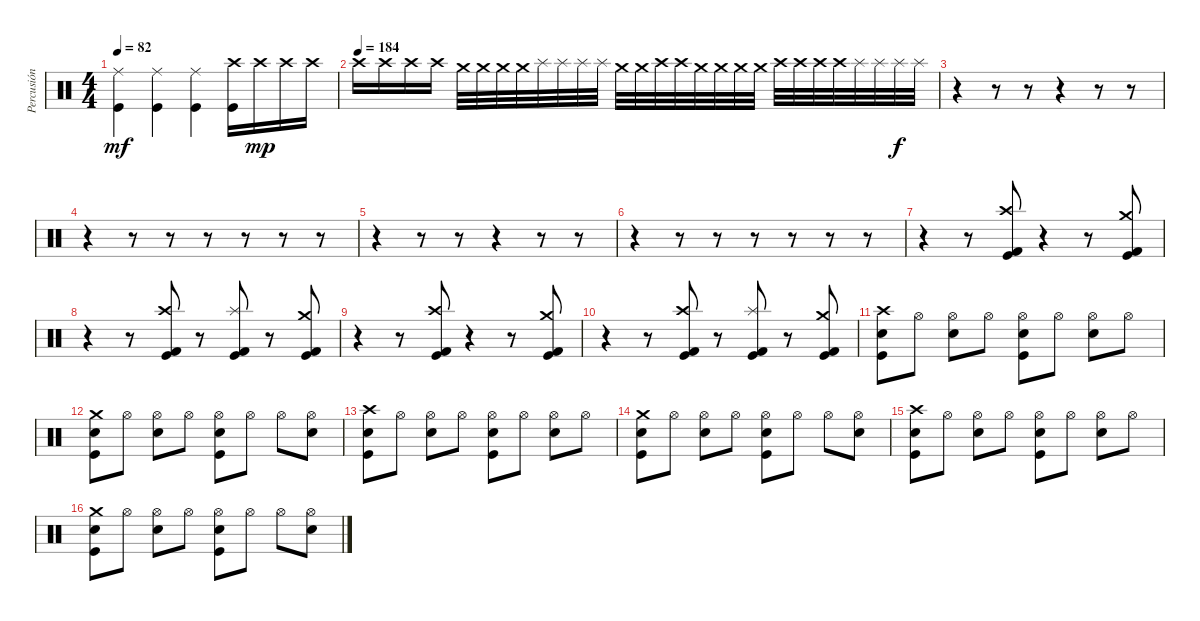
\track ("Percusión" "Percusión") {instrument percussion}
\staff {score}
\articulation defaults
\ts (4 4)
\tempo 82
\clef neutral
\ks c
("Ride (middle)" "Kick (hit)").4{dy mf} ("Ride (middle)" "Kick (hit)").4 ("Ride (middle)" "Kick (hit)").4 ("Crash high (hit)" "Kick (hit)").16 "Crash high (hit)".16{dy mp} "Crash high (hit)".16 "Crash high (hit)".16 |
\tempo (184)
"Crash high (hit)".16 "Crash high (hit)".16 "Crash high (hit)".16 "Crash high (hit)".16 "Crash medium (hit)".32 "Crash medium (hit)".32 "Crash medium (hit)".32 "Crash medium (hit)".32 "Splash (hit)".32 "Splash (hit)".32 "Splash (hit)".32 "Splash (hit)".32 "Crash medium (hit)".32 "Crash medium (hit)".32 "Crash high (hit)".32 "Crash high (hit)".32 "Crash medium (hit)".32 "Crash medium (hit)".32 "Crash medium (hit)".32 "Crash medium (hit)".32 "Crash high (hit)".32 "Crash high (hit)".32 "Crash high (hit)".32 "Crash high (hit)".32 "Splash (hit)".32 "Splash (hit)".32 "Splash (hit)".32{dy f} "Splash (hit)".32 |
r.4 r.8 r.8 r.4 r.8 r.8 |
r.4 r.8 r.8 r.8 r.8 r.8 r.8 |
r.4 r.8 r.8 r.4 r.8 r.8 |
r.4 r.8 r.8 r.8 r.8 r.8 r.8 |
r.4 r.8 ("Crash high (hit)" "Kick (hit) 2" "Kick (hit)").8 r.4 r.8 ("Crash medium (hit)" "Kick (hit) 2" "Kick (hit)").8 |
r.4 r.8 ("Crash high (hit)" "Kick (hit) 2" "Kick (hit)").8 r.8 ("Splash (hit)" "Kick (hit) 2" "Kick (hit)").8 r.8 ("Crash medium (hit)" "Kick (hit) 2" "Kick (hit)").8 |
r.4 r.8 ("Crash high (hit)" "Kick (hit) 2" "Kick (hit)").8 r.4 r.8 ("Crash medium (hit)" "Kick (hit) 2" "Kick (hit)").8 |
r.4 r.8 ("Crash high (hit)" "Kick (hit) 2" "Kick (hit)").8 r.8 ("Splash (hit)" "Kick (hit) 2" "Kick (hit)").8 r.8 ("Crash medium (hit)" "Kick (hit) 2" "Kick (hit)").8 |
("Crash high (hit)" "Electric Snare (hit)" "Kick (hit)").8 "Hi-Hat (open)".8 ("Hi-Hat (open)" "Electric Snare (hit)").8 "Hi-Hat (open)".8 ("Hi-Hat (open)" "Electric Snare (hit)" "Kick (hit)").8 "Hi-Hat (open)".8 ("Hi-Hat (open)" "Electric Snare (hit)").8 "Hi-Hat (open)".8 |
("Crash medium (hit)" "Electric Snare (hit)" "Kick (hit)").8 "Hi-Hat (open)".8 ("Hi-Hat (open)" "Electric Snare (hit)").8 "Hi-Hat (open)".8 ("Hi-Hat (open)" "Electric Snare (hit)" "Kick (hit)").8 "Hi-Hat (open)".8 "Hi-Hat (open)".8 ("Hi-Hat (open)" "Electric Snare (hit)").8 |
("Crash high (hit)" "Electric Snare (hit)" "Kick (hit)").8 "Hi-Hat (open)".8 ("Hi-Hat (open)" "Electric Snare (hit)").8 "Hi-Hat (open)".8 ("Hi-Hat (open)" "Electric Snare (hit)" "Kick (hit)").8 "Hi-Hat (open)".8 ("Hi-Hat (open)" "Electric Snare (hit)").8 "Hi-Hat (open)".8 |
("Crash medium (hit)" "Electric Snare (hit)" "Kick (hit)").8 "Hi-Hat (open)".8 ("Hi-Hat (open)" "Electric Snare (hit)").8 "Hi-Hat (open)".8 ("Hi-Hat (open)" "Electric Snare (hit)" "Kick (hit)").8 "Hi-Hat (open)".8 "Hi-Hat (open)".8 ("Hi-Hat (open)" "Electric Snare (hit)").8 |
("Crash high (hit)" "Electric Snare (hit)" "Kick (hit)").8 "Hi-Hat (open)".8 ("Hi-Hat (open)" "Electric Snare (hit)").8 "Hi-Hat (open)".8 ("Hi-Hat (open)" "Electric Snare (hit)" "Kick (hit)").8 "Hi-Hat (open)".8 ("Hi-Hat (open)" "Electric Snare (hit)").8 "Hi-Hat (open)".8 |
("Crash medium (hit)" "Electric Snare (hit)" "Kick (hit)").8 "Hi-Hat (open)".8 ("Hi-Hat (open)" "Electric Snare (hit)").8 "Hi-Hat (open)".8 ("Hi-Hat (open)" "Electric Snare (hit)" "Kick (hit)").8 "Hi-Hat (open)".8 "Hi-Hat (open)".8 ("Hi-Hat (open)" "Electric Snare (hit)").8
